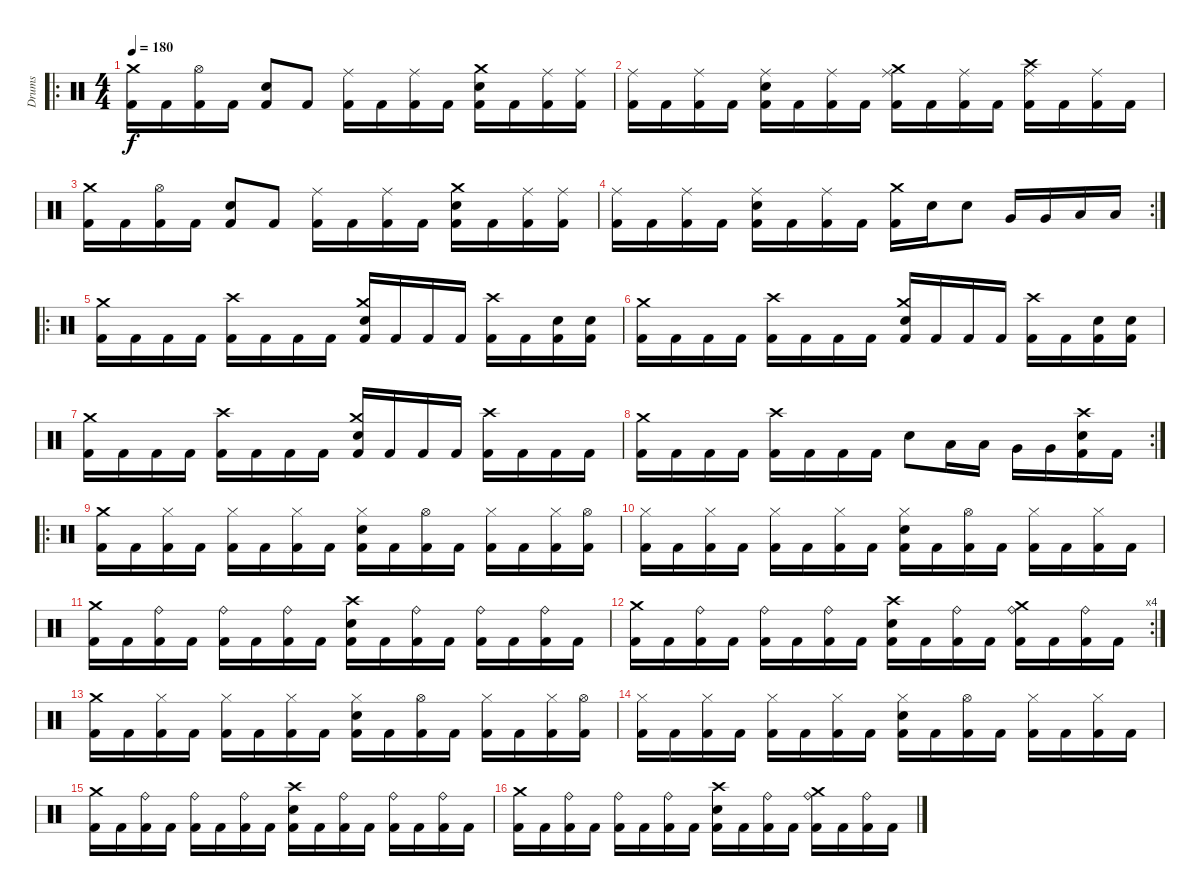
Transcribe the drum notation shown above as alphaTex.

\track ("Drums" "Drums") {instrument percussion}
\staff {score}
\articulation defaults
\ro
\ts (4 4)
\tempo 180
\clef neutral
\ks c
("Kick (hit) 2" "Crash medium (hit)").16{dy f} "Kick (hit) 2".16 ("Kick (hit) 2" "Hi-Hat (open)").16 "Kick (hit) 2".16 ("Kick (hit) 2" "Electric Snare (hit)").8 "Kick (hit) 2".8 ("Kick (hit) 2" "Ride (middle)").16 "Kick (hit) 2".16 ("Kick (hit) 2" "Ride (middle)").16 "Kick (hit) 2".16 ("Kick (hit) 2" "Electric Snare (hit)" "Crash medium (hit)").16 "Kick (hit) 2".16 ("Kick (hit) 2" "Ride (middle)").16 ("Kick (hit) 2" "Ride (middle)").16 |
("Kick (hit) 2" "Ride (middle)").16 "Kick (hit) 2".16 ("Kick (hit) 2" "Ride (middle)").16 "Kick (hit) 2".16 ("Kick (hit) 2" "Electric Snare (hit)" "Ride (middle)").16 "Kick (hit) 2".16 ("Kick (hit) 2" "Ride (middle)").16 "Kick (hit) 2".16 ("Kick (hit) 2" "Ride (middle)" "Crash medium (hit)").16 "Kick (hit) 2".16 ("Kick (hit) 2" "Ride (middle)").16 "Kick (hit) 2".16 ("Kick (hit) 2" "Ride (middle)" "Crash high (hit)").16 "Kick (hit) 2".16 ("Kick (hit) 2" "Ride (middle)").16 "Kick (hit) 2".16 |
("Kick (hit) 2" "Crash medium (hit)").16 "Kick (hit) 2".16 ("Kick (hit) 2" "Hi-Hat (open)").16 "Kick (hit) 2".16 ("Kick (hit) 2" "Electric Snare (hit)").8 "Kick (hit) 2".8 ("Kick (hit) 2" "Ride (middle)").16 "Kick (hit) 2".16 ("Kick (hit) 2" "Ride (middle)").16 "Kick (hit) 2".16 ("Kick (hit) 2" "Electric Snare (hit)" "Crash medium (hit)").16 "Kick (hit) 2".16 ("Kick (hit) 2" "Ride (middle)").16 ("Kick (hit) 2" "Ride (middle)").16 |
\rc 2
("Kick (hit) 2" "Ride (middle)").16 "Kick (hit) 2".16 ("Kick (hit) 2" "Ride (middle)").16 "Kick (hit) 2".16 ("Kick (hit) 2" "Electric Snare (hit)" "Ride (middle)").16 "Kick (hit) 2".16 ("Kick (hit) 2" "Ride (middle)").16 "Kick (hit) 2".16 ("Kick (hit) 2" "Crash medium (hit)").16 "Electric Snare (hit)".16 "Electric Snare (hit)".8 "Very Low Tom (hit)".16 "Very Low Tom (hit)".16 "Low Tom (hit)".16 "Low Tom (hit)".16 |
\ro
("Kick (hit) 2" "Crash medium (hit)").16 "Kick (hit) 2".16 "Kick (hit) 2".16 "Kick (hit) 2".16 ("Kick (hit) 2" "Crash high (hit)").16 "Kick (hit) 2".16 "Kick (hit) 2".16 "Kick (hit) 2".16 ("Kick (hit) 2" "Electric Snare (hit)" "Crash medium (hit)").16 "Kick (hit) 2".16 "Kick (hit) 2".16 "Kick (hit) 2".16 ("Kick (hit) 2" "Crash high (hit)").16 "Kick (hit) 2".16 ("Kick (hit) 2" "Electric Snare (hit)").16 ("Kick (hit) 2" "Electric Snare (hit)").16 |
("Kick (hit) 2" "Crash medium (hit)").16 "Kick (hit) 2".16 "Kick (hit) 2".16 "Kick (hit) 2".16 ("Kick (hit) 2" "Crash high (hit)").16 "Kick (hit) 2".16 "Kick (hit) 2".16 "Kick (hit) 2".16 ("Kick (hit) 2" "Electric Snare (hit)" "Crash medium (hit)").16 "Kick (hit) 2".16 "Kick (hit) 2".16 "Kick (hit) 2".16 ("Kick (hit) 2" "Crash high (hit)").16 "Kick (hit) 2".16 ("Kick (hit) 2" "Electric Snare (hit)").16 ("Kick (hit) 2" "Electric Snare (hit)").16 |
("Kick (hit) 2" "Crash medium (hit)").16 "Kick (hit) 2".16 "Kick (hit) 2".16 "Kick (hit) 2".16 ("Kick (hit) 2" "Crash high (hit)").16 "Kick (hit) 2".16 "Kick (hit) 2".16 "Kick (hit) 2".16 ("Kick (hit) 2" "Electric Snare (hit)" "Crash medium (hit)").16 "Kick (hit) 2".16 "Kick (hit) 2".16 "Kick (hit) 2".16 ("Kick (hit) 2" "Crash high (hit)").16 "Kick (hit) 2".16 "Kick (hit) 2".16 "Kick (hit) 2".16 |
\rc 2
("Kick (hit) 2" "Crash medium (hit)").16 "Kick (hit) 2".16 "Kick (hit) 2".16 "Kick (hit) 2".16 ("Kick (hit) 2" "Crash high (hit)").16 "Kick (hit) 2".16 "Kick (hit) 2".16 "Kick (hit) 2".16 "Electric Snare (hit)".8 "Low Floor Tom (hit)".16 "Low Floor Tom (hit)".16 "Very Low Tom (hit)".16 "Very Low Tom (hit)".16 ("Kick (hit) 2" "Electric Snare (hit)" "Crash high (hit)").16 "Kick (hit) 2".16 |
\ro
("Kick (hit) 2" "Crash medium (hit)").16 "Kick (hit) 2".16 ("Kick (hit) 2" "Hi-Hat (closed)").16 "Kick (hit) 2".16 ("Kick (hit) 2" "Hi-Hat (closed)").16 "Kick (hit) 2".16 ("Kick (hit) 2" "Hi-Hat (closed)").16 "Kick (hit) 2".16 ("Kick (hit) 2" "Electric Snare (hit)" "Hi-Hat (closed)").16 "Kick (hit) 2".16 ("Kick (hit) 2" "Hi-Hat (open)").16 "Kick (hit) 2".16 ("Kick (hit) 2" "Hi-Hat (closed)").16 "Kick (hit) 2".16 ("Kick (hit) 2" "Hi-Hat (closed)").16 ("Kick (hit) 2" "Hi-Hat (open)").16 |
("Kick (hit) 2" "Hi-Hat (closed)").16 "Kick (hit) 2".16 ("Kick (hit) 2" "Hi-Hat (closed)").16 "Kick (hit) 2".16 ("Kick (hit) 2" "Hi-Hat (closed)").16 "Kick (hit) 2".16 ("Kick (hit) 2" "Hi-Hat (closed)").16 "Kick (hit) 2".16 ("Kick (hit) 2" "Electric Snare (hit)" "Hi-Hat (closed)").16 "Kick (hit) 2".16 ("Kick (hit) 2" "Hi-Hat (open)").16 "Kick (hit) 2".16 ("Kick (hit) 2" "Hi-Hat (closed)").16 "Kick (hit) 2".16 ("Kick (hit) 2" "Hi-Hat (closed)").16 "Kick (hit) 2".16 |
("Kick (hit) 2" "Crash medium (hit)").16 "Kick (hit) 2".16 ("Kick (hit) 2" "Ride (bell)").16 "Kick (hit) 2".16 ("Kick (hit) 2" "Ride (bell)").16 "Kick (hit) 2".16 ("Kick (hit) 2" "Ride (bell)").16 "Kick (hit) 2".16 ("Kick (hit) 2" "Electric Snare (hit)" "Crash high (hit)").16 "Kick (hit) 2".16 ("Kick (hit) 2" "Ride (bell)").16 "Kick (hit) 2".16 ("Kick (hit) 2" "Ride (bell)").16 "Kick (hit) 2".16 ("Kick (hit) 2" "Ride (bell)").16 "Kick (hit) 2".16 |
\rc 4
("Kick (hit) 2" "Crash medium (hit)").16 "Kick (hit) 2".16 ("Kick (hit) 2" "Ride (bell)").16 "Kick (hit) 2".16 ("Kick (hit) 2" "Ride (bell)").16 "Kick (hit) 2".16 ("Kick (hit) 2" "Ride (bell)").16 "Kick (hit) 2".16 ("Kick (hit) 2" "Electric Snare (hit)" "Crash high (hit)").16 "Kick (hit) 2".16 ("Kick (hit) 2" "Ride (bell)").16 "Kick (hit) 2".16 ("Kick (hit) 2" "Ride (bell)" "Crash medium (hit)").16 "Kick (hit) 2".16 ("Kick (hit) 2" "Ride (bell)").16 "Kick (hit) 2".16 |
("Kick (hit) 2" "Crash medium (hit)").16 "Kick (hit) 2".16 ("Kick (hit) 2" "Hi-Hat (closed)").16 "Kick (hit) 2".16 ("Kick (hit) 2" "Hi-Hat (closed)").16 "Kick (hit) 2".16 ("Kick (hit) 2" "Hi-Hat (closed)").16 "Kick (hit) 2".16 ("Kick (hit) 2" "Electric Snare (hit)" "Hi-Hat (closed)").16 "Kick (hit) 2".16 ("Kick (hit) 2" "Hi-Hat (open)").16 "Kick (hit) 2".16 ("Kick (hit) 2" "Hi-Hat (closed)").16 "Kick (hit) 2".16 ("Kick (hit) 2" "Hi-Hat (closed)").16 ("Kick (hit) 2" "Hi-Hat (open)").16 |
("Kick (hit) 2" "Hi-Hat (closed)").16 "Kick (hit) 2".16 ("Kick (hit) 2" "Hi-Hat (closed)").16 "Kick (hit) 2".16 ("Kick (hit) 2" "Hi-Hat (closed)").16 "Kick (hit) 2".16 ("Kick (hit) 2" "Hi-Hat (closed)").16 "Kick (hit) 2".16 ("Kick (hit) 2" "Electric Snare (hit)" "Hi-Hat (closed)").16 "Kick (hit) 2".16 ("Kick (hit) 2" "Hi-Hat (open)").16 "Kick (hit) 2".16 ("Kick (hit) 2" "Hi-Hat (closed)").16 "Kick (hit) 2".16 ("Kick (hit) 2" "Hi-Hat (closed)").16 "Kick (hit) 2".16 |
("Kick (hit) 2" "Crash medium (hit)").16 "Kick (hit) 2".16 ("Kick (hit) 2" "Ride (bell)").16 "Kick (hit) 2".16 ("Kick (hit) 2" "Ride (bell)").16 "Kick (hit) 2".16 ("Kick (hit) 2" "Ride (bell)").16 "Kick (hit) 2".16 ("Kick (hit) 2" "Electric Snare (hit)" "Crash high (hit)").16 "Kick (hit) 2".16 ("Kick (hit) 2" "Ride (bell)").16 "Kick (hit) 2".16 ("Kick (hit) 2" "Ride (bell)").16 "Kick (hit) 2".16 ("Kick (hit) 2" "Ride (bell)").16 "Kick (hit) 2".16 |
("Kick (hit) 2" "Crash medium (hit)").16 "Kick (hit) 2".16 ("Kick (hit) 2" "Ride (bell)").16 "Kick (hit) 2".16 ("Kick (hit) 2" "Ride (bell)").16 "Kick (hit) 2".16 ("Kick (hit) 2" "Ride (bell)").16 "Kick (hit) 2".16 ("Kick (hit) 2" "Electric Snare (hit)" "Crash high (hit)").16 "Kick (hit) 2".16 ("Kick (hit) 2" "Ride (bell)").16 "Kick (hit) 2".16 ("Kick (hit) 2" "Ride (bell)" "Crash medium (hit)").16 "Kick (hit) 2".16 ("Kick (hit) 2" "Ride (bell)").16 "Kick (hit) 2".16
